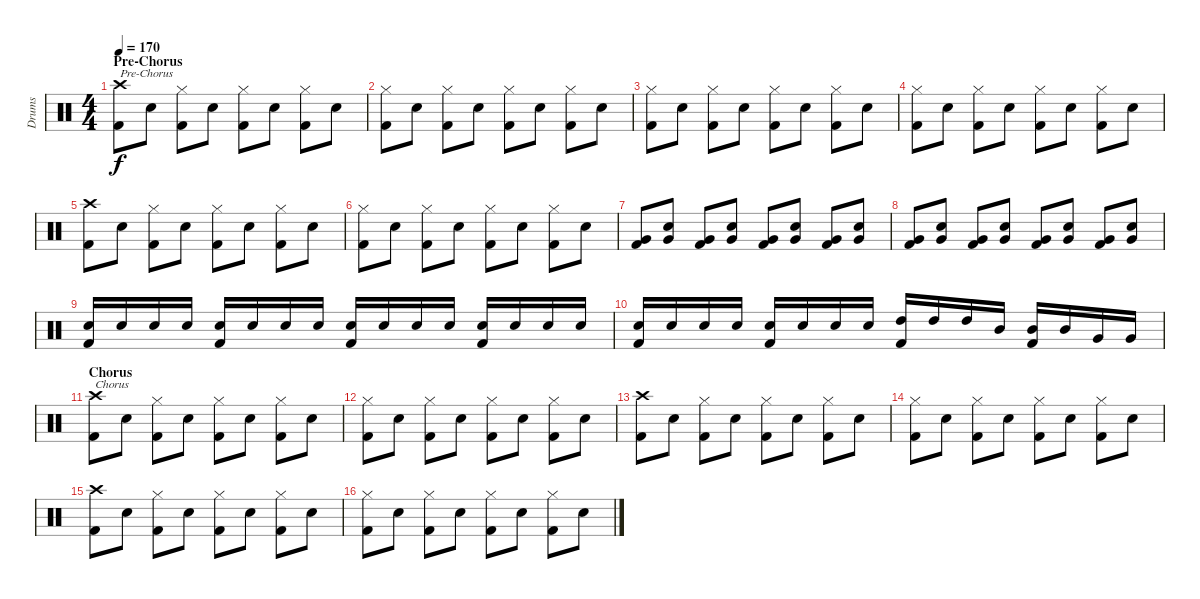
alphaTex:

\track ("Drums" "Drums") {instrument percussion}
\staff {score}
\articulation defaults
\ts (4 4)
\section ("" "Pre-Chorus")
\tempo 170
\clef neutral
\ks c
("Crash high (hit)" "Kick (hit) 2").8{txt "Pre-Chorus" dy f} "Electric Snare (hit)".8 ("Hi-Hat (closed)" "Kick (hit) 2").8 "Electric Snare (hit)".8 ("Hi-Hat (closed)" "Kick (hit) 2").8 "Electric Snare (hit)".8 ("Hi-Hat (closed)" "Kick (hit) 2").8 "Electric Snare (hit)".8 |
("Hi-Hat (closed)" "Kick (hit) 2").8 "Electric Snare (hit)".8 ("Hi-Hat (closed)" "Kick (hit) 2").8 "Electric Snare (hit)".8 ("Hi-Hat (closed)" "Kick (hit) 2").8 "Electric Snare (hit)".8 ("Hi-Hat (closed)" "Kick (hit) 2").8 "Electric Snare (hit)".8 |
("Hi-Hat (closed)" "Kick (hit) 2").8 "Electric Snare (hit)".8 ("Hi-Hat (closed)" "Kick (hit) 2").8 "Electric Snare (hit)".8 ("Hi-Hat (closed)" "Kick (hit) 2").8 "Electric Snare (hit)".8 ("Hi-Hat (closed)" "Kick (hit) 2").8 "Electric Snare (hit)".8 |
("Hi-Hat (closed)" "Kick (hit) 2").8 "Electric Snare (hit)".8 ("Hi-Hat (closed)" "Kick (hit) 2").8 "Electric Snare (hit)".8 ("Hi-Hat (closed)" "Kick (hit) 2").8 "Electric Snare (hit)".8 ("Hi-Hat (closed)" "Kick (hit) 2").8 "Electric Snare (hit)".8 |
("Crash high (hit)" "Kick (hit) 2").8 "Electric Snare (hit)".8 ("Hi-Hat (closed)" "Kick (hit) 2").8 "Electric Snare (hit)".8 ("Hi-Hat (closed)" "Kick (hit) 2").8 "Electric Snare (hit)".8 ("Hi-Hat (closed)" "Kick (hit) 2").8 "Electric Snare (hit)".8 |
("Hi-Hat (closed)" "Kick (hit) 2").8 "Electric Snare (hit)".8 ("Hi-Hat (closed)" "Kick (hit) 2").8 "Electric Snare (hit)".8 ("Hi-Hat (closed)" "Kick (hit) 2").8 "Electric Snare (hit)".8 ("Hi-Hat (closed)" "Kick (hit) 2").8 "Electric Snare (hit)".8 |
("Very Low Tom (hit)" "Kick (hit) 2").8 ("Electric Snare (hit)" "Very Low Tom (hit)").8 ("Very Low Tom (hit)" "Kick (hit) 2").8 ("Electric Snare (hit)" "Very Low Tom (hit)").8 ("Very Low Tom (hit)" "Kick (hit) 2").8 ("Electric Snare (hit)" "Very Low Tom (hit)").8 ("Very Low Tom (hit)" "Kick (hit) 2").8 ("Electric Snare (hit)" "Very Low Tom (hit)").8 |
("Very Low Tom (hit)" "Kick (hit) 2").8 ("Electric Snare (hit)" "Very Low Tom (hit)").8 ("Very Low Tom (hit)" "Kick (hit) 2").8 ("Electric Snare (hit)" "Very Low Tom (hit)").8 ("Very Low Tom (hit)" "Kick (hit) 2").8 ("Electric Snare (hit)" "Very Low Tom (hit)").8 ("Very Low Tom (hit)" "Kick (hit) 2").8 ("Electric Snare (hit)" "Very Low Tom (hit)").8 |
("Electric Snare (hit)" "Kick (hit) 2").16 "Electric Snare (hit)".16 "Electric Snare (hit)".16 "Electric Snare (hit)".16 ("Electric Snare (hit)" "Kick (hit) 2").16 "Electric Snare (hit)".16 "Electric Snare (hit)".16 "Electric Snare (hit)".16 ("Electric Snare (hit)" "Kick (hit) 2").16 "Electric Snare (hit)".16 "Electric Snare (hit)".16 "Electric Snare (hit)".16 ("Electric Snare (hit)" "Kick (hit) 2").16 "Electric Snare (hit)".16 "Electric Snare (hit)".16 "Electric Snare (hit)".16 |
("Electric Snare (hit)" "Kick (hit) 2").16 "Electric Snare (hit)".16 "Electric Snare (hit)".16 "Electric Snare (hit)".16 ("Electric Snare (hit)" "Kick (hit) 2").16 "Electric Snare (hit)".16 "Electric Snare (hit)".16 "Electric Snare (hit)".16 ("High Tom (hit)" "Kick (hit) 2").16 "High Tom (hit)".16 "High Tom (hit)".16 "Mid Tom (hit)".16 ("Mid Tom (hit)" "Kick (hit) 2").16 "Mid Tom (hit)".16 "Very Low Tom (hit)".16 "Very Low Tom (hit)".16 |
\section ("" "Chorus")
("Crash high (hit)" "Kick (hit) 2").8{txt "Chorus"} "Electric Snare (hit)".8 ("Hi-Hat (closed)" "Kick (hit) 2").8 "Electric Snare (hit)".8 ("Hi-Hat (closed)" "Kick (hit) 2").8 "Electric Snare (hit)".8 ("Hi-Hat (closed)" "Kick (hit) 2").8 "Electric Snare (hit)".8 |
("Hi-Hat (closed)" "Kick (hit) 2").8 "Electric Snare (hit)".8 ("Hi-Hat (closed)" "Kick (hit) 2").8 "Electric Snare (hit)".8 ("Hi-Hat (closed)" "Kick (hit) 2").8 "Electric Snare (hit)".8 ("Hi-Hat (closed)" "Kick (hit) 2").8 "Electric Snare (hit)".8 |
("Crash high (hit)" "Kick (hit) 2").8 "Electric Snare (hit)".8 ("Hi-Hat (closed)" "Kick (hit) 2").8 "Electric Snare (hit)".8 ("Hi-Hat (closed)" "Kick (hit) 2").8 "Electric Snare (hit)".8 ("Hi-Hat (closed)" "Kick (hit) 2").8 "Electric Snare (hit)".8 |
("Hi-Hat (closed)" "Kick (hit) 2").8 "Electric Snare (hit)".8 ("Hi-Hat (closed)" "Kick (hit) 2").8 "Electric Snare (hit)".8 ("Hi-Hat (closed)" "Kick (hit) 2").8 "Electric Snare (hit)".8 ("Hi-Hat (closed)" "Kick (hit) 2").8 "Electric Snare (hit)".8 |
("Crash high (hit)" "Kick (hit) 2").8 "Electric Snare (hit)".8 ("Hi-Hat (closed)" "Kick (hit) 2").8 "Electric Snare (hit)".8 ("Hi-Hat (closed)" "Kick (hit) 2").8 "Electric Snare (hit)".8 ("Hi-Hat (closed)" "Kick (hit) 2").8 "Electric Snare (hit)".8 |
("Hi-Hat (closed)" "Kick (hit) 2").8 "Electric Snare (hit)".8 ("Hi-Hat (closed)" "Kick (hit) 2").8 "Electric Snare (hit)".8 ("Hi-Hat (closed)" "Kick (hit) 2").8 "Electric Snare (hit)".8 ("Hi-Hat (closed)" "Kick (hit) 2").8 "Electric Snare (hit)".8
